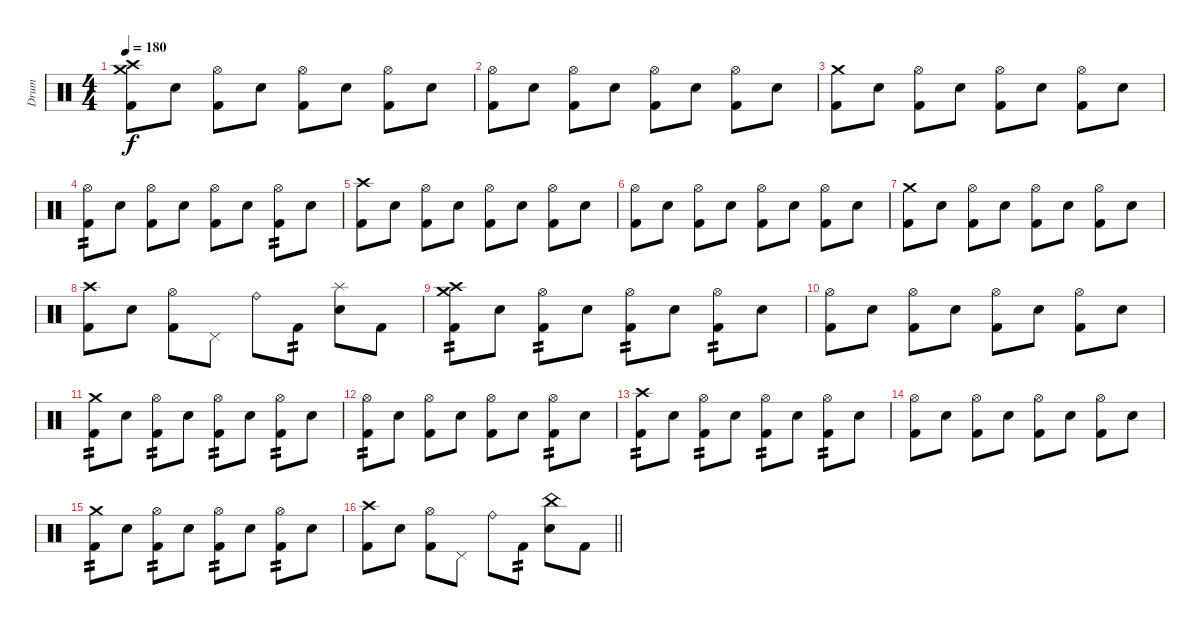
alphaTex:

\track ("Drum" "Drum") {instrument percussion}
\staff {score}
\articulation defaults
\ts (4 4)
\section ("" "")
\tempo 180
\clef neutral
\ks c
("Crash high (hit)" "Crash medium (hit)" "Kick (hit) 2").8{dy f} "Snare (hit) 2".8 ("Hi-Hat (open)" "Kick (hit) 2").8 "Snare (hit) 2".8 ("Hi-Hat (open)" "Kick (hit) 2").8 "Snare (hit) 2".8 ("Hi-Hat (open)" "Kick (hit) 2").8 "Snare (hit) 2".8 |
("Hi-Hat (open)" "Kick (hit) 2").8 "Snare (hit) 2".8 ("Hi-Hat (open)" "Kick (hit) 2").8 "Snare (hit) 2".8 ("Hi-Hat (open)" "Kick (hit) 2").8 "Snare (hit) 2".8 ("Hi-Hat (open)" "Kick (hit) 2").8 "Snare (hit) 2".8 |
("Crash medium (hit)" "Kick (hit) 2").8 "Snare (hit) 2".8 ("Hi-Hat (open)" "Kick (hit) 2").8 "Snare (hit) 2".8 ("Hi-Hat (open)" "Kick (hit) 2").8 "Snare (hit) 2".8 ("Hi-Hat (open)" "Kick (hit) 2").8 "Snare (hit) 2".8 |
("Hi-Hat (open)" "Kick (hit) 2").8{tp 2} "Snare (hit) 2".8 ("Hi-Hat (open)" "Kick (hit) 2").8 "Snare (hit) 2".8 ("Hi-Hat (open)" "Kick (hit) 2").8 "Snare (hit) 2".8 ("Hi-Hat (open)" "Kick (hit) 2").8{tp 2} "Snare (hit) 2".8 |
("Crash high (hit)" "Kick (hit) 2").8 "Snare (hit) 2".8 ("Hi-Hat (open)" "Kick (hit) 2").8 "Snare (hit) 2".8 ("Hi-Hat (open)" "Kick (hit) 2").8 "Snare (hit) 2".8 ("Hi-Hat (open)" "Kick (hit) 2").8 "Snare (hit) 2".8 |
("Hi-Hat (open)" "Kick (hit) 2").8 "Snare (hit) 2".8 ("Hi-Hat (open)" "Kick (hit) 2").8 "Snare (hit) 2".8 ("Hi-Hat (open)" "Kick (hit) 2").8 "Snare (hit) 2".8 ("Hi-Hat (open)" "Kick (hit) 2").8 "Snare (hit) 2".8 |
("Crash medium (hit)" "Kick (hit) 2").8 "Snare (hit) 2".8 ("Hi-Hat (open)" "Kick (hit) 2").8 "Snare (hit) 2".8 ("Hi-Hat (open)" "Kick (hit) 2").8 "Snare (hit) 2".8 ("Hi-Hat (open)" "Kick (hit) 2").8 "Snare (hit) 2".8 |
("Crash high (hit)" "Kick (hit) 2").8 "Snare (hit) 2".8 ("Hi-Hat (open)" "Kick (hit) 2").8 "Pedal Hi-Hat (hit)".8 "Ride (bell)".8 "Kick (hit) 2".8{tp 2} ("Splash (hit)" "Snare (hit) 2").8 "Kick (hit) 2".8 |
("Crash high (hit)" "Crash medium (hit)" "Kick (hit) 2").8{tp 2} "Snare (hit) 2".8 ("Hi-Hat (open)" "Kick (hit) 2").8{tp 2} "Snare (hit) 2".8 ("Hi-Hat (open)" "Kick (hit) 2").8{tp 2} "Snare (hit) 2".8 ("Hi-Hat (open)" "Kick (hit) 2").8{tp 2} "Snare (hit) 2".8 |
("Hi-Hat (open)" "Kick (hit) 2").8 "Snare (hit) 2".8 ("Hi-Hat (open)" "Kick (hit) 2").8 "Snare (hit) 2".8 ("Hi-Hat (open)" "Kick (hit) 2").8 "Snare (hit) 2".8 ("Hi-Hat (open)" "Kick (hit) 2").8 "Snare (hit) 2".8 |
("Crash medium (hit)" "Kick (hit) 2").8{tp 2} "Snare (hit) 2".8 ("Hi-Hat (open)" "Kick (hit) 2").8{tp 2} "Snare (hit) 2".8 ("Hi-Hat (open)" "Kick (hit) 2").8{tp 2} "Snare (hit) 2".8 ("Hi-Hat (open)" "Kick (hit) 2").8{tp 2} "Snare (hit) 2".8 |
("Hi-Hat (open)" "Kick (hit) 2").8{tp 2} "Snare (hit) 2".8 ("Hi-Hat (open)" "Kick (hit) 2").8 "Snare (hit) 2".8 ("Hi-Hat (open)" "Kick (hit) 2").8 "Snare (hit) 2".8 ("Hi-Hat (open)" "Kick (hit) 2").8{tp 2} "Snare (hit) 2".8 |
("Crash high (hit)" "Kick (hit) 2").8{tp 2} "Snare (hit) 2".8 ("Hi-Hat (open)" "Kick (hit) 2").8{tp 2} "Snare (hit) 2".8 ("Hi-Hat (open)" "Kick (hit) 2").8{tp 2} "Snare (hit) 2".8 ("Hi-Hat (open)" "Kick (hit) 2").8{tp 2} "Snare (hit) 2".8 |
("Hi-Hat (open)" "Kick (hit) 2").8 "Snare (hit) 2".8 ("Hi-Hat (open)" "Kick (hit) 2").8 "Snare (hit) 2".8 ("Hi-Hat (open)" "Kick (hit) 2").8 "Snare (hit) 2".8 ("Hi-Hat (open)" "Kick (hit) 2").8 "Snare (hit) 2".8 |
("Crash medium (hit)" "Kick (hit) 2").8{tp 2} "Snare (hit) 2".8 ("Hi-Hat (open)" "Kick (hit) 2").8{tp 2} "Snare (hit) 2".8 ("Hi-Hat (open)" "Kick (hit) 2").8{tp 2} "Snare (hit) 2".8 ("Hi-Hat (open)" "Kick (hit) 2").8{tp 2} "Snare (hit) 2".8 |
\barLineRight lightlight
("Crash high (hit)" "Kick (hit) 2").8 "Snare (hit) 2".8 ("Hi-Hat (open)" "Kick (hit) 2").8 "Pedal Hi-Hat (hit)".8 "Ride (bell)".8 "Kick (hit) 2".8{tp 2} ("China (hit)" "Snare (hit) 2").8 "Kick (hit) 2".8
